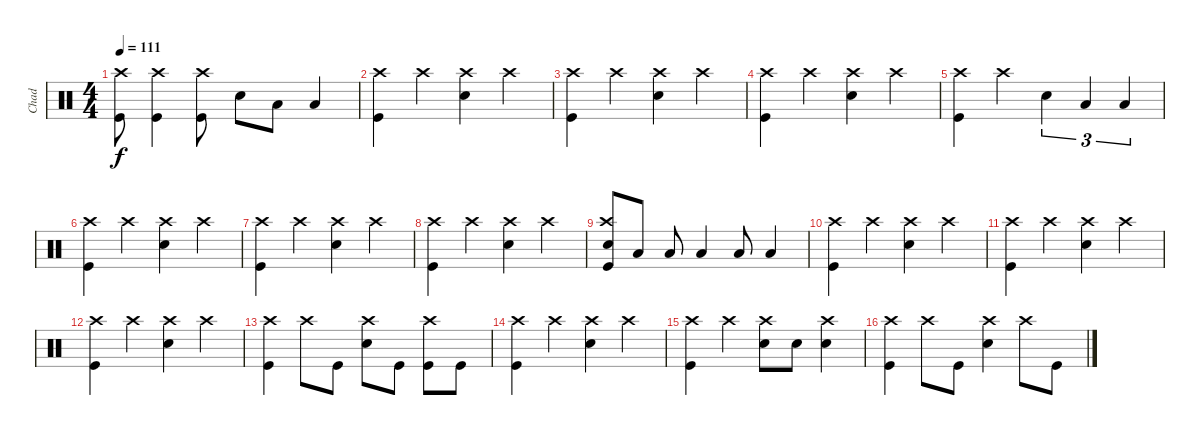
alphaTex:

\track ("Chad" "Chad") {instrument percussion}
\staff {score}
\articulation defaults
\ts (4 4)
\tempo 111
\clef neutral
\ks c
("Kick (hit)" "Crash high (hit)").8{dy f} ("Kick (hit)" "Crash high (hit)").4 ("Crash high (hit)" "Kick (hit)").8 "Snare (hit) 2".8 "Low Tom (hit)".8 "Low Floor Tom (hit)".4 |
("Kick (hit)" "Crash high (hit)").4 "Crash high (hit)".4 ("Snare (hit) 2" "Crash high (hit)").4 "Crash high (hit)".4 |
("Kick (hit)" "Crash high (hit)").4 "Crash high (hit)".4 ("Snare (hit) 2" "Crash high (hit)").4 "Crash high (hit)".4 |
("Kick (hit)" "Crash high (hit)").4 "Crash high (hit)".4 ("Snare (hit) 2" "Crash high (hit)").4 "Crash high (hit)".4 |
("Kick (hit)" "Crash high (hit)").4 "Crash high (hit)".4 "Snare (hit) 2".4{tu (3 2)} "Low Tom (hit)".4{tu (3 2)} "Low Floor Tom (hit)".4{tu (3 2)} |
("Kick (hit)" "Crash high (hit)").4 "Crash high (hit)".4 ("Snare (hit) 2" "Crash high (hit)").4 "Crash high (hit)".4 |
("Kick (hit)" "Crash high (hit)").4 "Crash high (hit)".4 ("Snare (hit) 2" "Crash high (hit)").4 "Crash high (hit)".4 |
("Kick (hit)" "Crash high (hit)").4 "Crash high (hit)".4 ("Snare (hit) 2" "Crash high (hit)").4 "Crash high (hit)".4 |
("Kick (hit)" "Crash high (hit)" "Snare (hit) 2").8 "Low Tom (hit)".8 "Low Floor Tom (hit)".8 "Low Tom (hit)".4 "Low Tom (hit)".8 "Low Tom (hit)".4 |
("Kick (hit)" "Crash high (hit)").4 "Crash high (hit)".4 ("Snare (hit) 2" "Crash high (hit)").4 "Crash high (hit)".4 |
("Kick (hit)" "Crash high (hit)").4 "Crash high (hit)".4 ("Snare (hit) 2" "Crash high (hit)").4 "Crash high (hit)".4 |
("Kick (hit)" "Crash high (hit)").4 "Crash high (hit)".4 ("Snare (hit) 2" "Crash high (hit)").4 "Crash high (hit)".4 |
("Kick (hit)" "Crash high (hit)").4 "Crash high (hit)".8 "Kick (hit)".8 ("Snare (hit) 2" "Crash high (hit)").8 "Kick (hit)".8 ("Crash high (hit)" "Kick (hit)").8 "Kick (hit)".8 |
("Kick (hit)" "Crash high (hit)").4 "Crash high (hit)".4 ("Snare (hit) 2" "Crash high (hit)").4 "Crash high (hit)".4 |
("Kick (hit)" "Crash high (hit)").4 "Crash high (hit)".4 ("Snare (hit) 2" "Crash high (hit)").8 "Snare (hit) 2".8 ("Crash high (hit)" "Snare (hit) 2").4 |
("Kick (hit)" "Crash high (hit)").4 "Crash high (hit)".8 "Kick (hit)".8 ("Snare (hit) 2" "Crash high (hit)").4 "Crash high (hit)".8 "Kick (hit)".8
